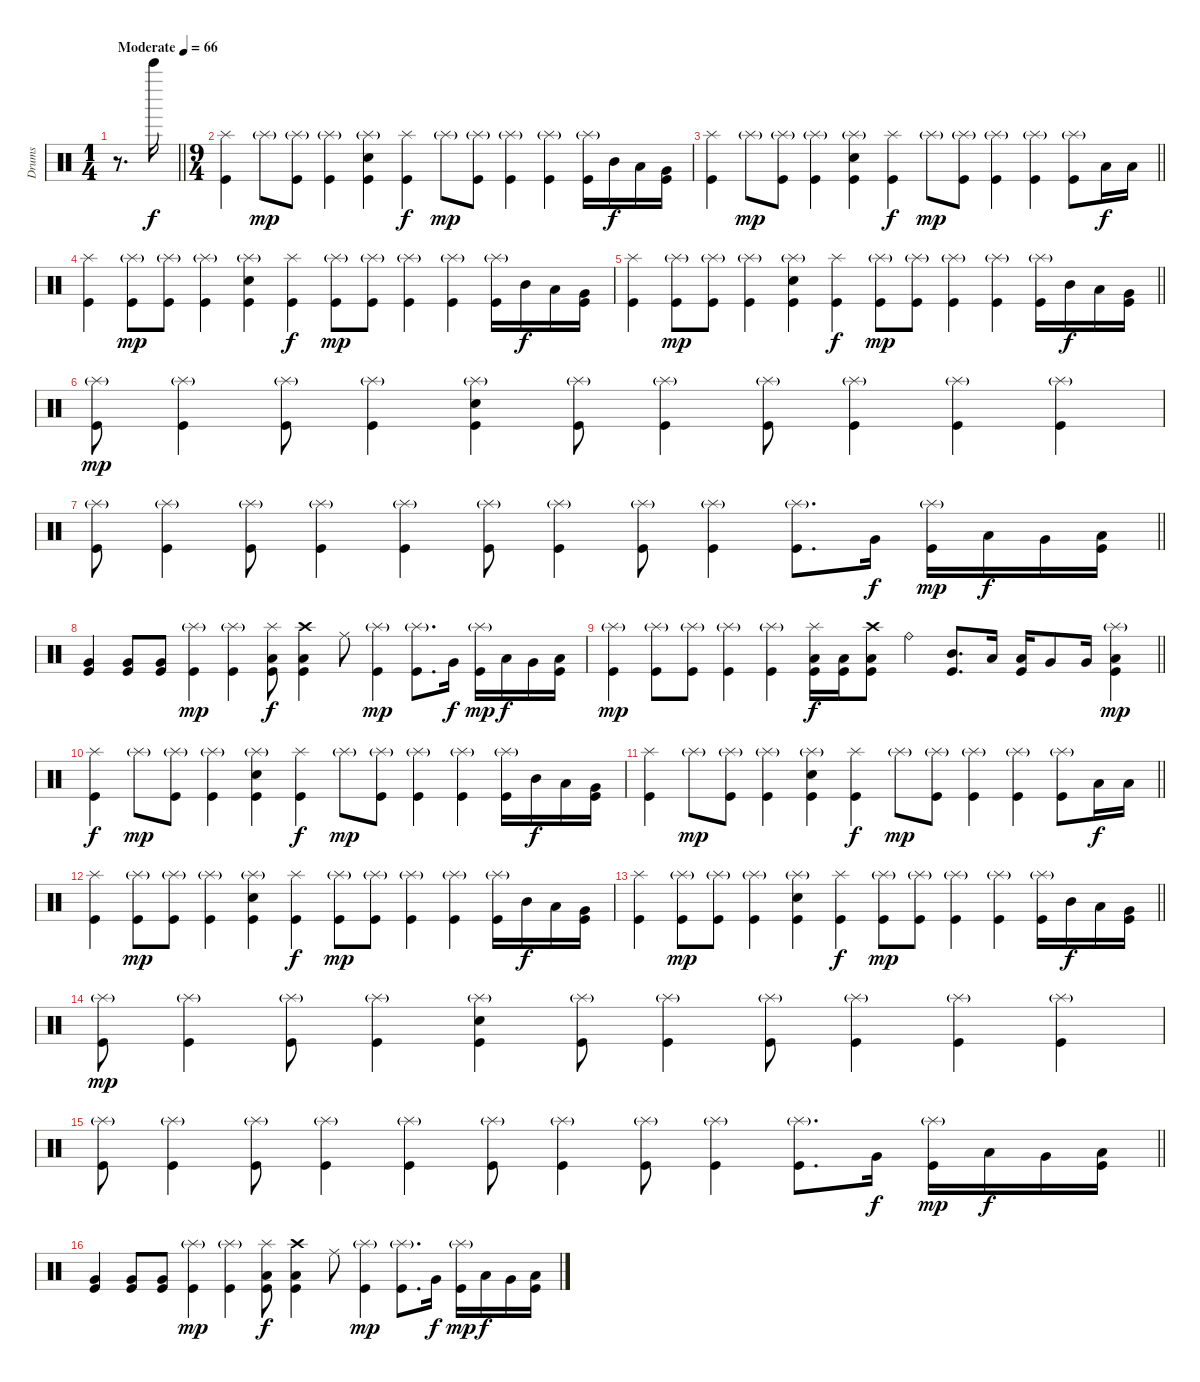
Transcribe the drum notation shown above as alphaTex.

\track ("Drums" "Drums") {instrument percussion}
\staff
\articulation defaults
\ts (1 4)
\tempo (66 "Moderate")
\clef neutral
\barLineRight lightlight
\ks c
r.8{d dy f} "Bell Tree (hit)".16 |
\ts (9 4)
("Splash (hit)" "Kick (hit)").4 "Splash (hit)"{g}.8{dy mp} ("Splash (hit)"{g} "Kick (hit)").8 ("Splash (hit)"{g} "Kick (hit)").4 ("Splash (hit)"{g} "Electric Snare (hit)" "Kick (hit)").4 ("Splash (hit)" "Kick (hit)").4{dy f} "Splash (hit)"{g}.8{dy mp} ("Splash (hit)"{g} "Kick (hit)").8 ("Splash (hit)"{g} "Kick (hit)").4 ("Splash (hit)"{g} "Kick (hit)").4 ("Splash (hit)"{g} "Kick (hit)").16 "Mid Tom (hit)".16{dy f} "Low Tom (hit)".16 ("Very Low Tom (hit)" "Kick (hit)").16 |
\barLineRight lightlight
("Splash (hit)" "Kick (hit)").4 "Splash (hit)"{g}.8{dy mp} ("Splash (hit)"{g} "Kick (hit)").8 ("Splash (hit)"{g} "Kick (hit)").4 ("Splash (hit)"{g} "Electric Snare (hit)" "Kick (hit)").4 ("Splash (hit)" "Kick (hit)").4{dy f} "Splash (hit)"{g}.8{dy mp} ("Splash (hit)"{g} "Kick (hit)").8 ("Splash (hit)"{g} "Kick (hit)").4 ("Splash (hit)"{g} "Kick (hit)").4 ("Splash (hit)"{g} "Kick (hit)").8 "Low Tom (hit)".16{dy f} "Low Tom (hit)".16 |
("Splash (hit)" "Kick (hit)").4 ("Splash (hit)"{g} "Kick (hit)").8{dy mp} ("Splash (hit)"{g} "Kick (hit)").8 ("Splash (hit)"{g} "Kick (hit)").4 ("Splash (hit)"{g} "Electric Snare (hit)" "Kick (hit)").4 ("Splash (hit)" "Kick (hit)").4{dy f} ("Splash (hit)"{g} "Kick (hit)").8{dy mp} ("Splash (hit)"{g} "Kick (hit)").8 ("Splash (hit)"{g} "Kick (hit)").4 ("Splash (hit)"{g} "Kick (hit)").4 ("Splash (hit)"{g} "Kick (hit)").16 "Mid Tom (hit)".16{dy f} "Low Tom (hit)".16 ("Very Low Tom (hit)" "Kick (hit)").16 |
\barLineRight lightlight
("Splash (hit)" "Kick (hit)").4 ("Splash (hit)"{g} "Kick (hit)").8{dy mp} ("Splash (hit)"{g} "Kick (hit)").8 ("Splash (hit)"{g} "Kick (hit)").4 ("Splash (hit)"{g} "Electric Snare (hit)" "Kick (hit)").4 ("Splash (hit)" "Kick (hit)").4{dy f} ("Splash (hit)"{g} "Kick (hit)").8{dy mp} ("Splash (hit)"{g} "Kick (hit)").8 ("Splash (hit)"{g} "Kick (hit)").4 ("Splash (hit)"{g} "Kick (hit)").4 ("Splash (hit)"{g} "Kick (hit)").16 "Mid Tom (hit)".16{dy f} "Low Tom (hit)".16 ("Very Low Tom (hit)" "Kick (hit)").16 |
("Splash (hit)"{g} "Kick (hit)").8{dy mp} ("Splash (hit)"{g} "Kick (hit)").4 ("Splash (hit)"{g} "Kick (hit)").8 ("Splash (hit)"{g} "Kick (hit)").4 ("Splash (hit)"{g} "Electric Snare (hit)" "Kick (hit)").4 ("Splash (hit)"{g} "Kick (hit)").8 ("Splash (hit)"{g} "Kick (hit)").4 ("Splash (hit)"{g} "Kick (hit)").8 ("Splash (hit)"{g} "Kick (hit)").4 ("Splash (hit)"{g} "Kick (hit)").4 ("Splash (hit)"{g} "Kick (hit)").4 |
\barLineRight lightlight
("Splash (hit)"{g} "Kick (hit)").8 ("Splash (hit)"{g} "Kick (hit)").4 ("Splash (hit)"{g} "Kick (hit)").8 ("Splash (hit)"{g} "Kick (hit)").4 ("Splash (hit)"{g} "Kick (hit)").4 ("Splash (hit)"{g} "Kick (hit)").8 ("Splash (hit)"{g} "Kick (hit)").4 ("Splash (hit)"{g} "Kick (hit)").8 ("Splash (hit)"{g} "Kick (hit)").4 ("Splash (hit)"{g} "Kick (hit)").8{d} "Very Low Tom (hit)".16{dy f} ("Splash (hit)"{g} "Kick (hit)").16{dy mp} "Low Floor Tom (hit)".16{dy f} "Very Low Tom (hit)".16 ("Low Tom (hit)" "Kick (hit)").16 |
("Very Low Tom (hit)" "Kick (hit)").4 ("Very Low Tom (hit)" "Kick (hit)").8 ("Very Low Tom (hit)" "Kick (hit)").8 ("Splash (hit)"{g} "Kick (hit)").4{dy mp} ("Splash (hit)"{g} "Kick (hit)").4 ("Splash (hit)" "Low Floor Tom (hit)" "Kick (hit)").8{dy f} ("Crash high (hit)" "Low Floor Tom (hit)" "Kick (hit)").4 "Ride (middle)".8 ("Splash (hit)"{g} "Kick (hit)").4{dy mp} ("Splash (hit)"{g} "Kick (hit)").8{d} "Very Low Tom (hit)".16{dy f} ("Splash (hit)"{g} "Kick (hit)").16{dy mp} "Low Floor Tom (hit)".16{dy f} "Very Low Tom (hit)".16 ("Low Tom (hit)" "Kick (hit)").16 |
\barLineRight lightlight
("Splash (hit)"{g} "Kick (hit)").4{dy mp} ("Splash (hit)"{g} "Kick (hit)").8 ("Splash (hit)"{g} "Kick (hit)").8 ("Splash (hit)"{g} "Kick (hit)").4 ("Splash (hit)"{g} "Kick (hit)").4 ("Splash (hit)" "Low Floor Tom (hit)" "Kick (hit)").16{dy f} ("Low Floor Tom (hit)" "Kick (hit)").16 ("Crash high (hit)" "Low Floor Tom (hit)" "Kick (hit)").8 "Ride (bell)".4 ("Mid Tom (hit)" "Kick (hit)").8{d} "Low Tom (hit)".16 ("Low Tom (hit)" "Kick (hit)").16 "Very Low Tom (hit)".8 "Very Low Tom (hit)".16 ("Splash (hit)"{g} "Low Floor Tom (hit)" "Kick (hit)").4{dy mp} |
\section ("" "")
("Splash (hit)" "Kick (hit)").4{dy f} "Splash (hit)"{g}.8{dy mp} ("Splash (hit)"{g} "Kick (hit)").8 ("Splash (hit)"{g} "Kick (hit)").4 ("Splash (hit)"{g} "Electric Snare (hit)" "Kick (hit)").4 ("Splash (hit)" "Kick (hit)").4{dy f} "Splash (hit)"{g}.8{dy mp} ("Splash (hit)"{g} "Kick (hit)").8 ("Splash (hit)"{g} "Kick (hit)").4 ("Splash (hit)"{g} "Kick (hit)").4 ("Splash (hit)"{g} "Kick (hit)").16 "Mid Tom (hit)".16{dy f} "Low Tom (hit)".16 ("Very Low Tom (hit)" "Kick (hit)").16 |
\barLineRight lightlight
("Splash (hit)" "Kick (hit)").4 "Splash (hit)"{g}.8{dy mp} ("Splash (hit)"{g} "Kick (hit)").8 ("Splash (hit)"{g} "Kick (hit)").4 ("Splash (hit)"{g} "Electric Snare (hit)" "Kick (hit)").4 ("Splash (hit)" "Kick (hit)").4{dy f} "Splash (hit)"{g}.8{dy mp} ("Splash (hit)"{g} "Kick (hit)").8 ("Splash (hit)"{g} "Kick (hit)").4 ("Splash (hit)"{g} "Kick (hit)").4 ("Splash (hit)"{g} "Kick (hit)").8 "Low Tom (hit)".16{dy f} "Low Tom (hit)".16 |
("Splash (hit)" "Kick (hit)").4 ("Splash (hit)"{g} "Kick (hit)").8{dy mp} ("Splash (hit)"{g} "Kick (hit)").8 ("Splash (hit)"{g} "Kick (hit)").4 ("Splash (hit)"{g} "Electric Snare (hit)" "Kick (hit)").4 ("Splash (hit)" "Kick (hit)").4{dy f} ("Splash (hit)"{g} "Kick (hit)").8{dy mp} ("Splash (hit)"{g} "Kick (hit)").8 ("Splash (hit)"{g} "Kick (hit)").4 ("Splash (hit)"{g} "Kick (hit)").4 ("Splash (hit)"{g} "Kick (hit)").16 "Mid Tom (hit)".16{dy f} "Low Tom (hit)".16 ("Very Low Tom (hit)" "Kick (hit)").16 |
\barLineRight lightlight
("Splash (hit)" "Kick (hit)").4 ("Splash (hit)"{g} "Kick (hit)").8{dy mp} ("Splash (hit)"{g} "Kick (hit)").8 ("Splash (hit)"{g} "Kick (hit)").4 ("Splash (hit)"{g} "Electric Snare (hit)" "Kick (hit)").4 ("Splash (hit)" "Kick (hit)").4{dy f} ("Splash (hit)"{g} "Kick (hit)").8{dy mp} ("Splash (hit)"{g} "Kick (hit)").8 ("Splash (hit)"{g} "Kick (hit)").4 ("Splash (hit)"{g} "Kick (hit)").4 ("Splash (hit)"{g} "Kick (hit)").16 "Mid Tom (hit)".16{dy f} "Low Tom (hit)".16 ("Very Low Tom (hit)" "Kick (hit)").16 |
("Splash (hit)"{g} "Kick (hit)").8{dy mp} ("Splash (hit)"{g} "Kick (hit)").4 ("Splash (hit)"{g} "Kick (hit)").8 ("Splash (hit)"{g} "Kick (hit)").4 ("Splash (hit)"{g} "Electric Snare (hit)" "Kick (hit)").4 ("Splash (hit)"{g} "Kick (hit)").8 ("Splash (hit)"{g} "Kick (hit)").4 ("Splash (hit)"{g} "Kick (hit)").8 ("Splash (hit)"{g} "Kick (hit)").4 ("Splash (hit)"{g} "Kick (hit)").4 ("Splash (hit)"{g} "Kick (hit)").4 |
\barLineRight lightlight
("Splash (hit)"{g} "Kick (hit)").8 ("Splash (hit)"{g} "Kick (hit)").4 ("Splash (hit)"{g} "Kick (hit)").8 ("Splash (hit)"{g} "Kick (hit)").4 ("Splash (hit)"{g} "Kick (hit)").4 ("Splash (hit)"{g} "Kick (hit)").8 ("Splash (hit)"{g} "Kick (hit)").4 ("Splash (hit)"{g} "Kick (hit)").8 ("Splash (hit)"{g} "Kick (hit)").4 ("Splash (hit)"{g} "Kick (hit)").8{d} "Very Low Tom (hit)".16{dy f} ("Splash (hit)"{g} "Kick (hit)").16{dy mp} "Low Floor Tom (hit)".16{dy f} "Very Low Tom (hit)".16 ("Low Tom (hit)" "Kick (hit)").16 |
("Very Low Tom (hit)" "Kick (hit)").4 ("Very Low Tom (hit)" "Kick (hit)").8 ("Very Low Tom (hit)" "Kick (hit)").8 ("Splash (hit)"{g} "Kick (hit)").4{dy mp} ("Splash (hit)"{g} "Kick (hit)").4 ("Splash (hit)" "Low Floor Tom (hit)" "Kick (hit)").8{dy f} ("Crash high (hit)" "Low Floor Tom (hit)" "Kick (hit)").4 "Ride (middle)".8 ("Splash (hit)"{g} "Kick (hit)").4{dy mp} ("Splash (hit)"{g} "Kick (hit)").8{d} "Very Low Tom (hit)".16{dy f} ("Splash (hit)"{g} "Kick (hit)").16{dy mp} "Low Floor Tom (hit)".16{dy f} "Very Low Tom (hit)".16 ("Low Tom (hit)" "Kick (hit)").16
